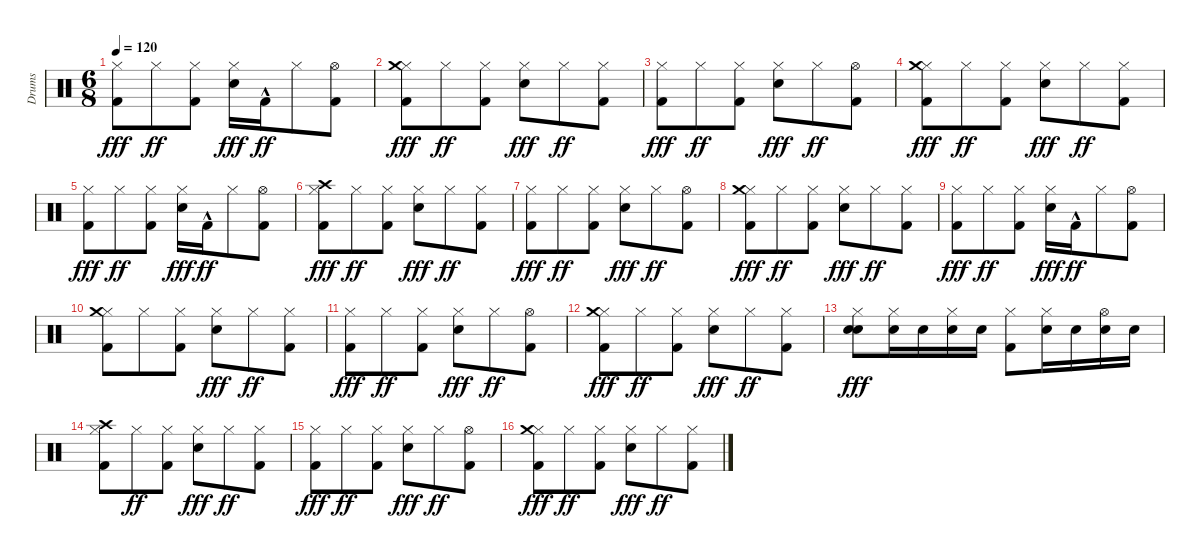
\track ("Drums" "Drums") {instrument percussion}
\staff {score}
\articulation defaults
\ts (6 8)
\tempo 120
\clef neutral
\ks c
("Hi-Hat (closed)" "Kick (hit) 2").8{dy fff} "Hi-Hat (closed)".8{dy ff} ("Hi-Hat (closed)" "Kick (hit) 2").8 ("Hi-Hat (closed)" "Snare (hit) 2").16{dy fff} "Kick (hit) 2"{hac}.16{dy ff} "Hi-Hat (closed)".8 ("Hi-Hat (open)" "Kick (hit) 2").8 |
("Hi-Hat (closed)" "Kick (hit) 2" "Crash medium (hit)").8{dy fff} "Hi-Hat (closed)".8{dy ff} ("Hi-Hat (closed)" "Kick (hit) 2").8 ("Hi-Hat (closed)" "Snare (hit) 2").8{dy fff} "Hi-Hat (closed)".8{dy ff} ("Hi-Hat (closed)" "Kick (hit) 2").8 |
("Hi-Hat (closed)" "Kick (hit) 2").8{dy fff} "Hi-Hat (closed)".8{dy ff} ("Hi-Hat (closed)" "Kick (hit) 2").8 ("Hi-Hat (closed)" "Snare (hit) 2").8{dy fff} "Hi-Hat (closed)".8{dy ff} ("Hi-Hat (open)" "Kick (hit) 2").8 |
("Hi-Hat (closed)" "Kick (hit) 2" "Crash medium (hit)").8{dy fff} "Hi-Hat (closed)".8{dy ff} ("Hi-Hat (closed)" "Kick (hit) 2").8 ("Hi-Hat (closed)" "Snare (hit) 2").8{dy fff} "Hi-Hat (closed)".8{dy ff} ("Hi-Hat (closed)" "Kick (hit) 2").8 |
("Hi-Hat (closed)" "Kick (hit) 2").8{dy fff} "Hi-Hat (closed)".8{dy ff} ("Hi-Hat (closed)" "Kick (hit) 2").8 ("Hi-Hat (closed)" "Snare (hit) 2").16{dy fff} "Kick (hit) 2"{hac}.16{dy ff} "Hi-Hat (closed)".8 ("Hi-Hat (open)" "Kick (hit) 2").8 |
("Hi-Hat (closed)" "Kick (hit) 2" "Crash high (hit)").8{dy fff} "Hi-Hat (closed)".8{dy ff} ("Hi-Hat (closed)" "Kick (hit) 2").8 ("Hi-Hat (closed)" "Snare (hit) 2").8{dy fff} "Hi-Hat (closed)".8{dy ff} ("Hi-Hat (closed)" "Kick (hit) 2").8 |
("Hi-Hat (closed)" "Kick (hit) 2").8{dy fff} "Hi-Hat (closed)".8{dy ff} ("Hi-Hat (closed)" "Kick (hit) 2").8 ("Hi-Hat (closed)" "Snare (hit) 2").8{dy fff} "Hi-Hat (closed)".8{dy ff} ("Hi-Hat (open)" "Kick (hit) 2").8 |
("Hi-Hat (closed)" "Kick (hit) 2" "Crash medium (hit)").8{dy fff} "Hi-Hat (closed)".8{dy ff} ("Hi-Hat (closed)" "Kick (hit) 2").8 ("Hi-Hat (closed)" "Snare (hit) 2").8{dy fff} "Hi-Hat (closed)".8{dy ff} ("Hi-Hat (closed)" "Kick (hit) 2").8 |
("Hi-Hat (closed)" "Kick (hit) 2").8{dy fff} "Hi-Hat (closed)".8{dy ff} ("Hi-Hat (closed)" "Kick (hit) 2").8 ("Hi-Hat (closed)" "Snare (hit) 2").16{dy fff} "Kick (hit) 2"{hac}.16{dy ff} "Hi-Hat (closed)".8 ("Hi-Hat (open)" "Kick (hit) 2").8 |
("Hi-Hat (closed)" "Kick (hit) 2" "Crash medium (hit)").8 "Hi-Hat (closed)".8 ("Hi-Hat (closed)" "Kick (hit) 2").8 ("Hi-Hat (closed)" "Snare (hit) 2").8{dy fff} "Hi-Hat (closed)".8{dy ff} ("Hi-Hat (closed)" "Kick (hit) 2").8 |
("Hi-Hat (closed)" "Kick (hit) 2").8{dy fff} "Hi-Hat (closed)".8{dy ff} ("Hi-Hat (closed)" "Kick (hit) 2").8 ("Hi-Hat (closed)" "Snare (hit) 2").8{dy fff} "Hi-Hat (closed)".8{dy ff} ("Hi-Hat (open)" "Kick (hit) 2").8 |
("Hi-Hat (closed)" "Kick (hit) 2" "Crash medium (hit)").8{dy fff} "Hi-Hat (closed)".8{dy ff} ("Hi-Hat (closed)" "Kick (hit) 2").8 ("Hi-Hat (closed)" "Snare (hit) 2").8{dy fff} "Hi-Hat (closed)".8{dy ff} ("Hi-Hat (closed)" "Kick (hit) 2").8 |
("Hi-Hat (closed)" "Electric Snare (hit)" "Snare (hit) 2").8{dy fff} ("Hi-Hat (closed)" "Electric Snare (hit)").16 "Electric Snare (hit)".16 ("Hi-Hat (closed)" "Electric Snare (hit)").16 "Electric Snare (hit)".16 ("Hi-Hat (closed)" "Kick (hit) 2").8 ("Hi-Hat (closed)" "Electric Snare (hit)").16 "Electric Snare (hit)".16 ("Hi-Hat (open)" "Electric Snare (hit)").16 "Electric Snare (hit)".16 |
("Hi-Hat (closed)" "Kick (hit) 2" "Crash high (hit)").8 "Hi-Hat (closed)".8{dy ff} ("Hi-Hat (closed)" "Kick (hit) 2").8 ("Hi-Hat (closed)" "Snare (hit) 2").8{dy fff} "Hi-Hat (closed)".8{dy ff} ("Hi-Hat (closed)" "Kick (hit) 2").8 |
("Hi-Hat (closed)" "Kick (hit) 2").8{dy fff} "Hi-Hat (closed)".8{dy ff} ("Hi-Hat (closed)" "Kick (hit) 2").8 ("Hi-Hat (closed)" "Snare (hit) 2").8{dy fff} "Hi-Hat (closed)".8{dy ff} ("Hi-Hat (open)" "Kick (hit) 2").8 |
("Hi-Hat (closed)" "Kick (hit) 2" "Crash medium (hit)").8{dy fff} "Hi-Hat (closed)".8{dy ff} ("Hi-Hat (closed)" "Kick (hit) 2").8 ("Hi-Hat (closed)" "Snare (hit) 2").8{dy fff} "Hi-Hat (closed)".8{dy ff} ("Hi-Hat (closed)" "Kick (hit) 2").8
